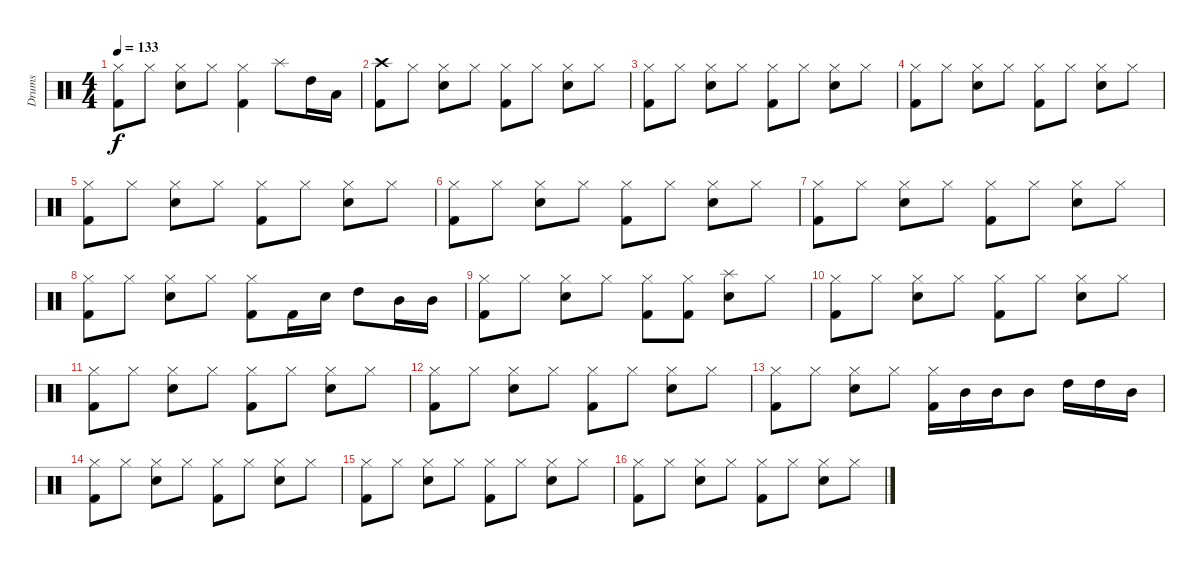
\track ("Drums" "Drums") {instrument percussion}
\staff {score}
\articulation defaults
\ts (4 4)
\tempo 133
\clef neutral
\ks c
("Kick (hit) 2" "Hi-Hat (closed)").8{dy f} "Hi-Hat (closed)".8 ("Snare (hit) 2" "Hi-Hat (closed)").8 "Hi-Hat (closed)".8 ("Kick (hit) 2" "Hi-Hat (closed)").4 "Splash (hit)".8 "High Tom (hit)".16 "Low Tom (hit)".16 |
("Kick (hit) 2" "Crash high (hit)").8 "Hi-Hat (closed)".8 ("Snare (hit) 2" "Hi-Hat (closed)").8 "Hi-Hat (closed)".8 ("Kick (hit) 2" "Hi-Hat (closed)").8 "Hi-Hat (closed)".8 ("Snare (hit) 2" "Hi-Hat (closed)").8 "Hi-Hat (closed)".8 |
("Kick (hit) 2" "Hi-Hat (closed)").8 "Hi-Hat (closed)".8 ("Snare (hit) 2" "Hi-Hat (closed)").8 "Hi-Hat (closed)".8 ("Kick (hit) 2" "Hi-Hat (closed)").8 "Hi-Hat (closed)".8 ("Snare (hit) 2" "Hi-Hat (closed)").8 "Hi-Hat (closed)".8 |
("Kick (hit) 2" "Hi-Hat (closed)").8 "Hi-Hat (closed)".8 ("Snare (hit) 2" "Hi-Hat (closed)").8 "Hi-Hat (closed)".8 ("Kick (hit) 2" "Hi-Hat (closed)").8 "Hi-Hat (closed)".8 ("Snare (hit) 2" "Hi-Hat (closed)").8 "Hi-Hat (closed)".8 |
("Kick (hit) 2" "Hi-Hat (closed)").8 "Hi-Hat (closed)".8 ("Snare (hit) 2" "Hi-Hat (closed)").8 "Hi-Hat (closed)".8 ("Kick (hit) 2" "Hi-Hat (closed)").8 "Hi-Hat (closed)".8 ("Snare (hit) 2" "Hi-Hat (closed)").8 "Hi-Hat (closed)".8 |
("Kick (hit) 2" "Hi-Hat (closed)").8 "Hi-Hat (closed)".8 ("Snare (hit) 2" "Hi-Hat (closed)").8 "Hi-Hat (closed)".8 ("Kick (hit) 2" "Hi-Hat (closed)").8 "Hi-Hat (closed)".8 ("Snare (hit) 2" "Hi-Hat (closed)").8 "Hi-Hat (closed)".8 |
("Kick (hit) 2" "Hi-Hat (closed)").8 "Hi-Hat (closed)".8 ("Snare (hit) 2" "Hi-Hat (closed)").8 "Hi-Hat (closed)".8 ("Kick (hit) 2" "Hi-Hat (closed)").8 "Hi-Hat (closed)".8 ("Snare (hit) 2" "Hi-Hat (closed)").8 "Hi-Hat (closed)".8 |
("Kick (hit) 2" "Hi-Hat (closed)").8 "Hi-Hat (closed)".8 ("Snare (hit) 2" "Hi-Hat (closed)").8 "Hi-Hat (closed)".8 ("Kick (hit) 2" "Hi-Hat (closed)").8 "Kick (hit) 2".16 "Snare (hit) 2".16 "High Tom (hit)".8 "Mid Tom (hit)".16 "Mid Tom (hit)".16 |
("Kick (hit) 2" "Hi-Hat (closed)").8 "Hi-Hat (closed)".8 ("Snare (hit) 2" "Hi-Hat (closed)").8 "Hi-Hat (closed)".8 ("Kick (hit) 2" "Hi-Hat (closed)").8 ("Kick (hit) 2" "Hi-Hat (closed)").8 ("Snare (hit) 2" "Splash (hit)").8 "Hi-Hat (closed)".8 |
("Kick (hit) 2" "Hi-Hat (closed)").8 "Hi-Hat (closed)".8 ("Snare (hit) 2" "Hi-Hat (closed)").8 "Hi-Hat (closed)".8 ("Kick (hit) 2" "Hi-Hat (closed)").8 "Hi-Hat (closed)".8 ("Snare (hit) 2" "Hi-Hat (closed)").8 "Hi-Hat (closed)".8 |
("Kick (hit) 2" "Hi-Hat (closed)").8 "Hi-Hat (closed)".8 ("Snare (hit) 2" "Hi-Hat (closed)").8 "Hi-Hat (closed)".8 ("Kick (hit) 2" "Hi-Hat (closed)").8 "Hi-Hat (closed)".8 ("Snare (hit) 2" "Hi-Hat (closed)").8 "Hi-Hat (closed)".8 |
("Kick (hit) 2" "Hi-Hat (closed)").8 "Hi-Hat (closed)".8 ("Snare (hit) 2" "Hi-Hat (closed)").8 "Hi-Hat (closed)".8 ("Kick (hit) 2" "Hi-Hat (closed)").8 "Hi-Hat (closed)".8 ("Snare (hit) 2" "Hi-Hat (closed)").8 "Hi-Hat (closed)".8 |
("Kick (hit) 2" "Hi-Hat (closed)").8 "Hi-Hat (closed)".8 ("Snare (hit) 2" "Hi-Hat (closed)").8 "Hi-Hat (closed)".8 ("Kick (hit) 2" "Hi-Hat (closed)").16 "Mid Tom (hit)".16 "Mid Tom (hit)".16 "Mid Tom (hit)".8 "High Tom (hit)".16 "High Tom (hit)".16 "Mid Tom (hit)".16 |
("Kick (hit) 2" "Hi-Hat (closed)").8 "Hi-Hat (closed)".8 ("Snare (hit) 2" "Hi-Hat (closed)").8 "Hi-Hat (closed)".8 ("Kick (hit) 2" "Hi-Hat (closed)").8 "Hi-Hat (closed)".8 ("Snare (hit) 2" "Hi-Hat (closed)").8 "Hi-Hat (closed)".8 |
("Kick (hit) 2" "Hi-Hat (closed)").8 "Hi-Hat (closed)".8 ("Snare (hit) 2" "Hi-Hat (closed)").8 "Hi-Hat (closed)".8 ("Kick (hit) 2" "Hi-Hat (closed)").8 "Hi-Hat (closed)".8 ("Snare (hit) 2" "Hi-Hat (closed)").8 "Hi-Hat (closed)".8 |
("Kick (hit) 2" "Hi-Hat (closed)").8 "Hi-Hat (closed)".8 ("Snare (hit) 2" "Hi-Hat (closed)").8 "Hi-Hat (closed)".8 ("Kick (hit) 2" "Hi-Hat (closed)").8 "Hi-Hat (closed)".8 ("Snare (hit) 2" "Hi-Hat (closed)").8 "Hi-Hat (closed)".8
